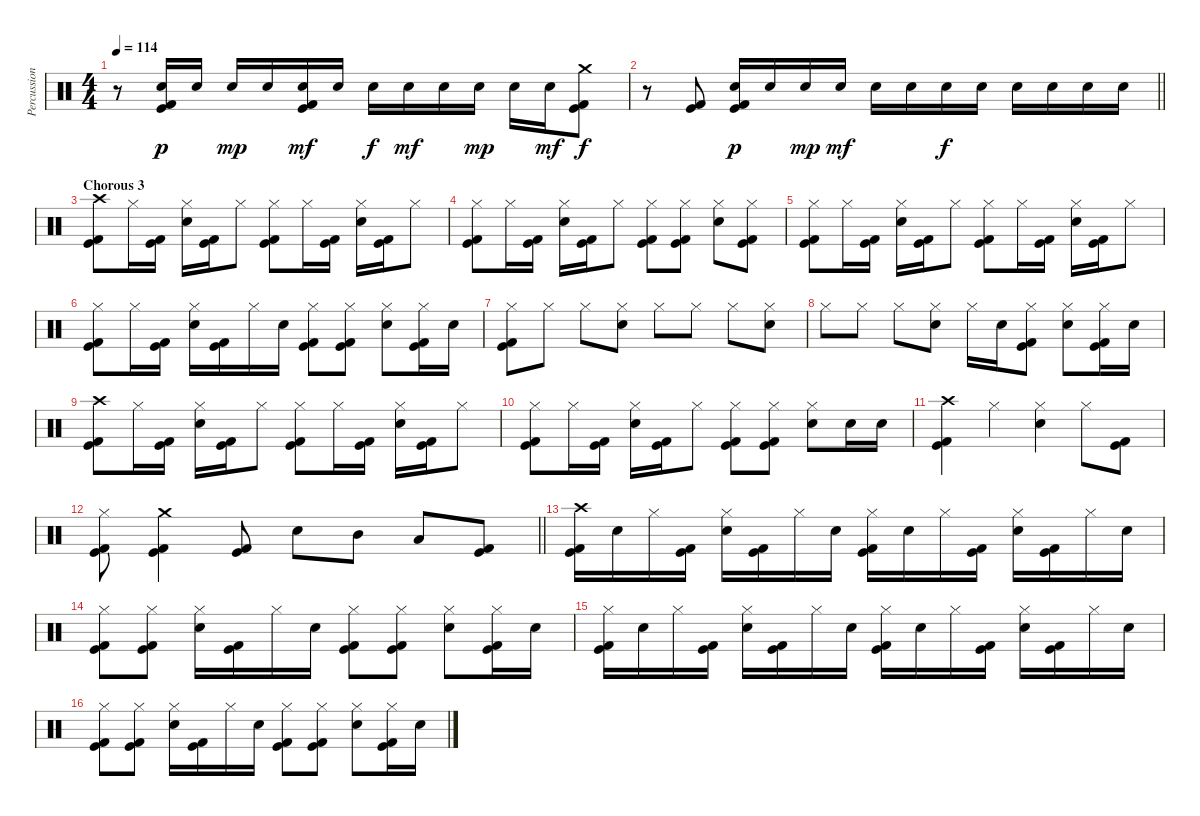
\track ("Percussion" "Percussion") {instrument percussion}
\staff {score}
\articulation defaults
\ts (4 4)
\tempo 114
\clef neutral
\ks c
r.8{dy f} ("Snare (hit) 2" "Kick (hit)" "Kick (hit) 2").16{dy p} "Snare (hit) 2".16 "Snare (hit) 2".16{dy mp} "Snare (hit) 2".16 ("Snare (hit) 2" "Kick (hit)" "Kick (hit) 2").16{dy mf} "Snare (hit) 2".16 "Snare (hit) 2".16{dy f} "Snare (hit) 2".16{dy mf} "Snare (hit) 2".16 "Snare (hit) 2".16{dy mp} "Snare (hit) 2".16 "Snare (hit) 2".16{dy mf} ("Crash medium (hit)" "Kick (hit)" "Kick (hit) 2").8{dy f} |
\barLineRight lightlight
r.8 ("Kick (hit)" "Kick (hit) 2").8 ("Snare (hit) 2" "Kick (hit)" "Kick (hit) 2").16{dy p} "Snare (hit) 2".16 "Snare (hit) 2".16{dy mp} "Snare (hit) 2".16{dy mf} "Snare (hit) 2".16 "Snare (hit) 2".16 "Snare (hit) 2".16{dy f} "Snare (hit) 2".16 "Snare (hit) 2".16 "Snare (hit) 2".16 "Snare (hit) 2".16 "Snare (hit) 2".16 |
\section ("" "Chorous 3")
("Crash high (hit)" "Kick (hit)" "Kick (hit) 2").8 "Hi-Hat (closed)".16 ("Kick (hit)" "Kick (hit) 2").16 ("Hi-Hat (closed)" "Electric Snare (hit)").16 ("Kick (hit)" "Kick (hit) 2").16 "Hi-Hat (closed)".8 ("Hi-Hat (closed)" "Kick (hit)" "Kick (hit) 2").8 "Hi-Hat (closed)".16 ("Kick (hit)" "Kick (hit) 2").16 ("Hi-Hat (closed)" "Electric Snare (hit)").16 ("Kick (hit)" "Kick (hit) 2").16 "Hi-Hat (closed)".8 |
("Hi-Hat (closed)" "Kick (hit)" "Kick (hit) 2").8 "Hi-Hat (closed)".16 ("Kick (hit)" "Kick (hit) 2").16 ("Hi-Hat (closed)" "Electric Snare (hit)").16 ("Kick (hit)" "Kick (hit) 2").16 "Hi-Hat (closed)".8 ("Hi-Hat (closed)" "Kick (hit)" "Kick (hit) 2").8 ("Hi-Hat (closed)" "Kick (hit)" "Kick (hit) 2").8 ("Hi-Hat (closed)" "Electric Snare (hit)").8 ("Hi-Hat (closed)" "Kick (hit)" "Kick (hit) 2").8 |
("Hi-Hat (closed)" "Kick (hit)" "Kick (hit) 2").8 "Hi-Hat (closed)".16 ("Kick (hit)" "Kick (hit) 2").16 ("Hi-Hat (closed)" "Electric Snare (hit)").16 ("Kick (hit)" "Kick (hit) 2").16 "Hi-Hat (closed)".8 ("Hi-Hat (closed)" "Kick (hit)" "Kick (hit) 2").8 "Hi-Hat (closed)".16 ("Kick (hit)" "Kick (hit) 2").16 ("Hi-Hat (closed)" "Electric Snare (hit)").16 ("Kick (hit)" "Kick (hit) 2").16 "Hi-Hat (closed)".8 |
("Hi-Hat (closed)" "Kick (hit)" "Kick (hit) 2").8 "Hi-Hat (closed)".16 ("Kick (hit)" "Kick (hit) 2").16 ("Hi-Hat (closed)" "Electric Snare (hit)").16 ("Kick (hit)" "Kick (hit) 2").16 "Hi-Hat (closed)".16 "Electric Snare (hit)".16 ("Hi-Hat (closed)" "Kick (hit)" "Kick (hit) 2").8 ("Hi-Hat (closed)" "Kick (hit)" "Kick (hit) 2").8 ("Hi-Hat (closed)" "Electric Snare (hit)").8 ("Hi-Hat (closed)" "Kick (hit)" "Kick (hit) 2").16 "Electric Snare (hit)".16 |
("Hi-Hat (closed)" "Kick (hit)" "Kick (hit) 2").8 "Hi-Hat (closed)".8 "Hi-Hat (closed)".8 ("Hi-Hat (closed)" "Electric Snare (hit)").8 "Hi-Hat (closed)".8 "Hi-Hat (closed)".8 "Hi-Hat (closed)".8 ("Hi-Hat (closed)" "Electric Snare (hit)").8 |
"Hi-Hat (closed)".8 "Hi-Hat (closed)".8 "Hi-Hat (closed)".8 ("Hi-Hat (closed)" "Electric Snare (hit)").8 "Hi-Hat (closed)".16 "Electric Snare (hit)".16 ("Hi-Hat (closed)" "Kick (hit)" "Kick (hit) 2").8 ("Hi-Hat (closed)" "Electric Snare (hit)").8 ("Hi-Hat (closed)" "Kick (hit)" "Kick (hit) 2").16 "Electric Snare (hit)".16 |
("Crash high (hit)" "Kick (hit)" "Kick (hit) 2").8 "Hi-Hat (closed)".16 ("Kick (hit)" "Kick (hit) 2").16 ("Hi-Hat (closed)" "Electric Snare (hit)").16 ("Kick (hit)" "Kick (hit) 2").16 "Hi-Hat (closed)".8 ("Hi-Hat (closed)" "Kick (hit)" "Kick (hit) 2").8 "Hi-Hat (closed)".16 ("Kick (hit)" "Kick (hit) 2").16 ("Hi-Hat (closed)" "Electric Snare (hit)").16 ("Kick (hit)" "Kick (hit) 2").16 "Hi-Hat (closed)".8 |
("Hi-Hat (closed)" "Kick (hit)" "Kick (hit) 2").8 "Hi-Hat (closed)".16 ("Kick (hit)" "Kick (hit) 2").16 ("Hi-Hat (closed)" "Electric Snare (hit)").16 ("Kick (hit)" "Kick (hit) 2").16 "Hi-Hat (closed)".8 ("Hi-Hat (closed)" "Kick (hit)" "Kick (hit) 2").8 ("Hi-Hat (closed)" "Kick (hit)" "Kick (hit) 2").8 ("Hi-Hat (closed)" "Electric Snare (hit)").8 "Electric Snare (hit)".16 "Electric Snare (hit)".16 |
("Crash high (hit)" "Kick (hit)" "Kick (hit) 2").4 "Hi-Hat (closed)".4 ("Hi-Hat (closed)" "Electric Snare (hit)").4 "Hi-Hat (closed)".8 ("Kick (hit)" "Kick (hit) 2").8 |
\barLineRight lightlight
("Hi-Hat (closed)" "Kick (hit)" "Kick (hit) 2").8 ("Crash medium (hit)" "Kick (hit)" "Kick (hit) 2").4 ("Kick (hit)" "Kick (hit) 2").8 "Electric Snare (hit)".8 "Mid Tom (hit)".8 "Low Tom (hit)".8 ("Kick (hit)" "Kick (hit) 2").8 |
\section ("" "")
("Crash high (hit)" "Kick (hit)" "Kick (hit) 2").16 "Electric Snare (hit)".16 "Hi-Hat (closed)".16 ("Kick (hit)" "Kick (hit) 2").16 ("Hi-Hat (closed)" "Electric Snare (hit)").16 ("Kick (hit)" "Kick (hit) 2").16 "Hi-Hat (closed)".16 "Electric Snare (hit)".16 ("Hi-Hat (closed)" "Kick (hit)" "Kick (hit) 2").16 "Electric Snare (hit)".16 "Hi-Hat (closed)".16 ("Kick (hit)" "Kick (hit) 2").16 ("Hi-Hat (closed)" "Electric Snare (hit)").16 ("Kick (hit)" "Kick (hit) 2").16 "Hi-Hat (closed)".16 "Electric Snare (hit)".16 |
("Hi-Hat (closed)" "Kick (hit)" "Kick (hit) 2").8 ("Hi-Hat (closed)" "Kick (hit)" "Kick (hit) 2").8 ("Hi-Hat (closed)" "Electric Snare (hit)").16 ("Kick (hit)" "Kick (hit) 2").16 "Hi-Hat (closed)".16 "Electric Snare (hit)".16 ("Hi-Hat (closed)" "Kick (hit)" "Kick (hit) 2").8 ("Hi-Hat (closed)" "Kick (hit)" "Kick (hit) 2").8 ("Hi-Hat (closed)" "Electric Snare (hit)").8 ("Hi-Hat (closed)" "Kick (hit)" "Kick (hit) 2").16 "Electric Snare (hit)".16 |
("Hi-Hat (closed)" "Kick (hit)" "Kick (hit) 2").16 "Electric Snare (hit)".16 "Hi-Hat (closed)".16 ("Kick (hit)" "Kick (hit) 2").16 ("Hi-Hat (closed)" "Electric Snare (hit)").16 ("Kick (hit)" "Kick (hit) 2").16 "Hi-Hat (closed)".16 "Electric Snare (hit)".16 ("Hi-Hat (closed)" "Kick (hit)" "Kick (hit) 2").16 "Electric Snare (hit)".16 "Hi-Hat (closed)".16 ("Kick (hit)" "Kick (hit) 2").16 ("Hi-Hat (closed)" "Electric Snare (hit)").16 ("Kick (hit)" "Kick (hit) 2").16 "Hi-Hat (closed)".16 "Electric Snare (hit)".16 |
("Hi-Hat (closed)" "Kick (hit)" "Kick (hit) 2").8 ("Hi-Hat (closed)" "Kick (hit)" "Kick (hit) 2").8 ("Hi-Hat (closed)" "Electric Snare (hit)").16 ("Kick (hit)" "Kick (hit) 2").16 "Hi-Hat (closed)".16 "Electric Snare (hit)".16 ("Hi-Hat (closed)" "Kick (hit)" "Kick (hit) 2").8 ("Hi-Hat (closed)" "Kick (hit)" "Kick (hit) 2").8 ("Hi-Hat (closed)" "Electric Snare (hit)").8 ("Hi-Hat (closed)" "Kick (hit)" "Kick (hit) 2").16 "Electric Snare (hit)".16
